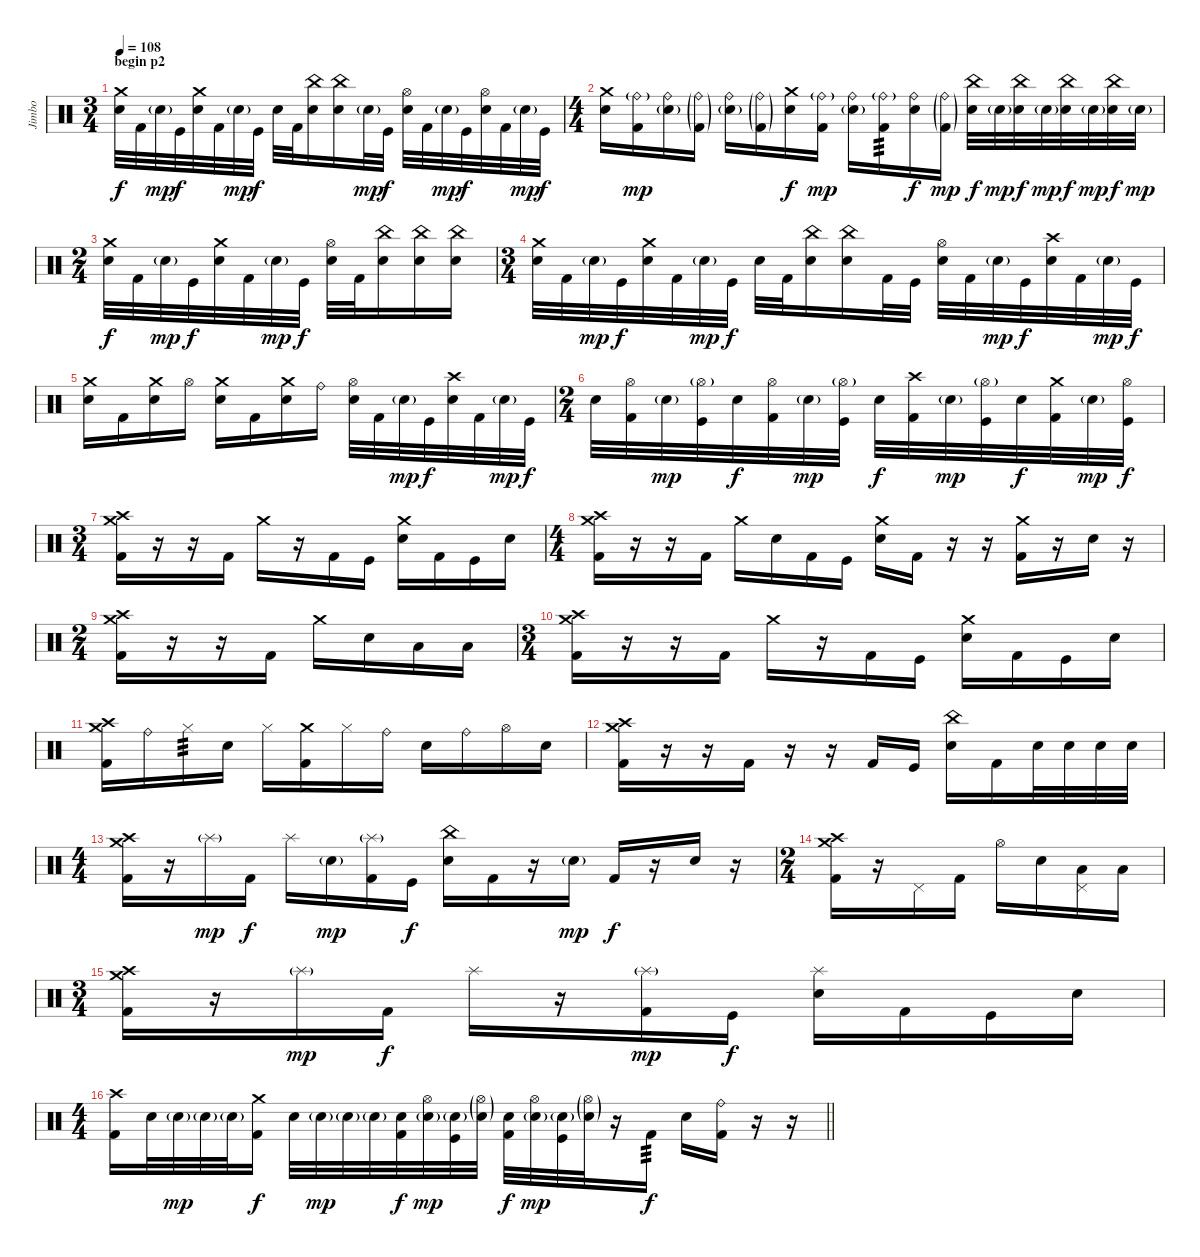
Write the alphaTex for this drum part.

\track ("Jimbo" "Jimbo") {instrument percussion}
\staff
\articulation defaults
\ts (3 4)
\section ("" "begin p2")
\tempo 108
\clef neutral
\ks c
("Electric Snare (hit)" "Crash medium (hit)").32{dy f} "Kick (hit) 2".32 "Electric Snare (hit)"{g}.32{dy mp} "Kick (hit)".32{dy f} ("Electric Snare (hit)" "Crash medium (hit)").32 "Kick (hit) 2".32 "Electric Snare (hit)"{g}.32{dy mp} "Kick (hit)".32{dy f} "Electric Snare (hit)".32 "Kick (hit) 2".32 ("Electric Snare (hit)" "China (hit)").16 ("Electric Snare (hit)" "China (hit)").16 "Electric Snare (hit)"{g}.32{dy mp} "Kick (hit)".32{dy f} ("Electric Snare (hit)" "Hi-Hat (open)").32 "Kick (hit) 2".32 "Electric Snare (hit)"{g}.32{dy mp} "Kick (hit)".32{dy f} ("Electric Snare (hit)" "Hi-Hat (open)").32 "Kick (hit) 2".32 "Electric Snare (hit)"{g}.32{dy mp} "Kick (hit)".32{dy f} |
\ts (4 4)
("Electric Snare (hit)" "Crash medium (hit)").16 ("Kick (hit) 2" "Ride (bell)"{g}).16{dy mp} ("Electric Snare (hit)"{g} "Ride (bell)").16 ("Kick (hit) 2"{g} "Ride (bell)"{g}).16 ("Electric Snare (hit)"{g} "Ride (bell)").16 ("Kick (hit) 2"{g} "Ride (bell)"{g}).16 ("Electric Snare (hit)" "Crash medium (hit)").16{dy f} ("Kick (hit) 2" "Ride (bell)"{g}).16{dy mp} ("Electric Snare (hit)"{g} "Ride (bell)").16 ("Kick (hit) 2" "Ride (bell)"{g}).16{tp 3} ("Electric Snare (hit)" "Ride (bell)").16{dy f} ("Kick (hit) 2"{g} "Ride (bell)"{g}).16{dy mp} ("Electric Snare (hit)" "China (hit)").32{dy f} "Electric Snare (hit)"{g}.32{dy mp} ("Electric Snare (hit)" "China (hit)").32{dy f} "Electric Snare (hit)"{g}.32{dy mp} ("Electric Snare (hit)" "China (hit)").32{dy f} "Electric Snare (hit)"{g}.32{dy mp} ("Electric Snare (hit)" "China (hit)").32{dy f} "Electric Snare (hit)"{g}.32{dy mp} |
\ts (2 4)
("Electric Snare (hit)" "Crash medium (hit)").32{dy f} "Kick (hit) 2".32 "Electric Snare (hit)"{g}.32{dy mp} "Kick (hit)".32{dy f} ("Electric Snare (hit)" "Crash medium (hit)").32 "Kick (hit) 2".32 "Electric Snare (hit)"{g}.32{dy mp} "Kick (hit)".32{dy f} ("Electric Snare (hit)" "Hi-Hat (open)").32 "Kick (hit) 2".32 ("Electric Snare (hit)" "China (hit)").16 ("Electric Snare (hit)" "China (hit)").16 ("Electric Snare (hit)" "China (hit)").16 |
\ts (3 4)
("Electric Snare (hit)" "Crash medium (hit)").32 "Kick (hit) 2".32 "Electric Snare (hit)"{g}.32{dy mp} "Kick (hit)".32{dy f} ("Electric Snare (hit)" "Crash medium (hit)").32 "Kick (hit) 2".32 "Electric Snare (hit)"{g}.32{dy mp} "Kick (hit)".32{dy f} "Electric Snare (hit)".32 "Kick (hit) 2".32 ("Electric Snare (hit)" "China (hit)").16 ("Electric Snare (hit)" "China (hit)").16 "Kick (hit) 2".32 "Kick (hit)".32 ("Electric Snare (hit)" "Hi-Hat (open)").32 "Kick (hit) 2".32 "Electric Snare (hit)"{g}.32{dy mp} "Kick (hit)".32{dy f} ("Electric Snare (hit)" "Crash high (hit)").32 "Kick (hit) 2".32 "Electric Snare (hit)"{g}.32{dy mp} "Kick (hit)".32{dy f} |
("Electric Snare (hit)" "Crash medium (hit)").16 "Kick (hit) 2".16 ("Electric Snare (hit)" "Crash medium (hit)").16 "Hi-Hat (open)".16 ("Electric Snare (hit)" "Crash medium (hit)").16 "Kick (hit) 2".16 ("Electric Snare (hit)" "Crash medium (hit)").16 "Ride (bell)".16 ("Electric Snare (hit)" "Hi-Hat (open)").32 "Kick (hit) 2".32 "Electric Snare (hit)"{g}.32{dy mp} "Kick (hit)".32{dy f} ("Electric Snare (hit)" "Crash high (hit)").32 "Kick (hit) 2".32 "Electric Snare (hit)"{g}.32{dy mp} "Kick (hit)".32{dy f} |
\ts (2 4)
"Electric Snare (hit)".32 ("Kick (hit) 2" "Hi-Hat (open)").32 "Electric Snare (hit)"{g}.32{dy mp} ("Kick (hit)" "Hi-Hat (open)"{g}).32 "Electric Snare (hit)".32{dy f} ("Kick (hit) 2" "Hi-Hat (open)").32 "Electric Snare (hit)"{g}.32{dy mp} ("Kick (hit)" "Hi-Hat (open)"{g}).32 "Electric Snare (hit)".32{dy f} ("Kick (hit) 2" "Crash high (hit)").32 "Electric Snare (hit)"{g}.32{dy mp} ("Kick (hit)" "Hi-Hat (open)"{g}).32 "Electric Snare (hit)".32{dy f} ("Kick (hit) 2" "Crash medium (hit)").32 "Electric Snare (hit)"{g}.32{dy mp} ("Kick (hit)" "Hi-Hat (open)").32{dy f} |
\ts (3 4)
("Kick (hit) 2" "Crash medium (hit)" "Crash high (hit)").16 r.16 r.16 "Kick (hit) 2".16 "Crash medium (hit)".16 r.16 "Kick (hit) 2".16 "Kick (hit)".16 ("Electric Snare (hit)" "Crash medium (hit)").16 "Kick (hit) 2".16 "Kick (hit)".16 "Electric Snare (hit)".16 |
\ts (4 4)
("Kick (hit) 2" "Crash medium (hit)" "Crash high (hit)").16 r.16 r.16 "Kick (hit) 2".16 "Crash medium (hit)".16 "Electric Snare (hit)".16 "Kick (hit) 2".16 "Kick (hit)".16 ("Crash medium (hit)" "Electric Snare (hit)").16 "Kick (hit) 2".16 r.16 r.16 ("Crash medium (hit)" "Kick (hit) 2").16 r.16 "Electric Snare (hit)".16 r.16 |
\ts (2 4)
("Kick (hit) 2" "Crash medium (hit)" "Crash high (hit)").16 r.16 r.16 "Kick (hit) 2".16 "Crash medium (hit)".16 "Electric Snare (hit)".16 "Low Tom (hit)".16 "Low Floor Tom (hit)".16 |
\ts (3 4)
("Kick (hit) 2" "Crash medium (hit)" "Crash high (hit)").16 r.16 r.16 "Kick (hit) 2".16 "Crash medium (hit)".16 r.16 "Kick (hit) 2".16 "Kick (hit)".16 ("Electric Snare (hit)" "Crash medium (hit)").16 "Kick (hit) 2".16 "Kick (hit)".16 "Electric Snare (hit)".16 |
("Kick (hit) 2" "Crash medium (hit)" "Crash high (hit)").16 "Ride (bell)".16 "Hi-Hat (closed)".16{tp 3} "Electric Snare (hit)".16 "Hi-Hat (closed)".16 ("Kick (hit) 2" "Crash medium (hit)").16 "Hi-Hat (closed)".16 "Ride (bell)".16 "Electric Snare (hit)".16 "Ride (bell)".16 "Hi-Hat (open)".16 "Electric Snare (hit)".16 |
("Kick (hit) 2" "Crash medium (hit)" "Crash high (hit)").16 r.16 r.16 "Kick (hit) 2".16 r.16 r.16 "Kick (hit) 2".16 "Kick (hit)".16 ("Electric Snare (hit)" "China (hit)").16 "Kick (hit) 2".16 "Electric Snare (hit)".32 "Electric Snare (hit)".32 "Electric Snare (hit)".32 "Electric Snare (hit)".32 |
\ts (4 4)
("Kick (hit) 2" "Crash medium (hit)" "Crash high (hit)").16 r.16 "Splash (hit)"{g}.16{dy mp} "Kick (hit) 2".16{dy f} "Splash (hit)".16 "Electric Snare (hit)"{g}.16{dy mp} ("Splash (hit)"{g} "Kick (hit) 2").16 "Kick (hit)".16{dy f} ("China (hit)" "Electric Snare (hit)").16 "Kick (hit) 2".16 r.16 "Electric Snare (hit)"{g}.16{dy mp} "Kick (hit) 2".16{dy f} r.16 "Electric Snare (hit)".16 r.16 |
\ts (2 4)
("Kick (hit) 2" "Crash medium (hit)" "Crash high (hit)").16 r.16 "Pedal Hi-Hat (hit)".16 "Kick (hit) 2".16 "Hi-Hat (open)".16 "Electric Snare (hit)".16 ("Low Tom (hit)" "Pedal Hi-Hat (hit)").16 "Low Floor Tom (hit)".16 |
\ts (3 4)
("Kick (hit) 2" "Crash medium (hit)" "Crash high (hit)").16 r.16 "Splash (hit)"{g}.16{dy mp} "Kick (hit) 2".16{dy f} "Splash (hit)".16 r.16 ("Kick (hit) 2" "Splash (hit)"{g}).16{dy mp} "Kick (hit)".16{dy f} ("Electric Snare (hit)" "Splash (hit)").16 "Kick (hit) 2".16 "Kick (hit)".16 "Electric Snare (hit)".16 |
\ts (4 4)
\barLineRight lightlight
("Kick (hit) 2" "Crash high (hit)").16 "Electric Snare (hit)".32 "Electric Snare (hit)"{g}.32{dy mp} "Electric Snare (hit)"{g}.32 "Electric Snare (hit)"{g}.32 ("Kick (hit) 2" "Crash medium (hit)").16{dy f} "Electric Snare (hit)".32 "Electric Snare (hit)"{g}.32{dy mp} "Electric Snare (hit)"{g}.32 "Electric Snare (hit)"{g}.32 ("Electric Snare (hit)" "Kick (hit) 2").32{dy f} ("Electric Snare (hit)"{g} "Hi-Hat (open)").32{dy mp} ("Electric Snare (hit)"{g} "Kick (hit)").32 ("Electric Snare (hit)"{g} "Hi-Hat (open)"{g}).32 ("Electric Snare (hit)" "Kick (hit) 2").32{dy f} ("Electric Snare (hit)"{g} "Hi-Hat (open)").32{dy mp} ("Electric Snare (hit)"{g} "Kick (hit)").32 ("Electric Snare (hit)"{g} "Hi-Hat (open)"{g}).32 r.16 "Kick (hit) 2".16{tp 3 dy f} "Electric Snare (hit)".16 ("Kick (hit) 2" "Ride (bell)").16 r.16 r.16
